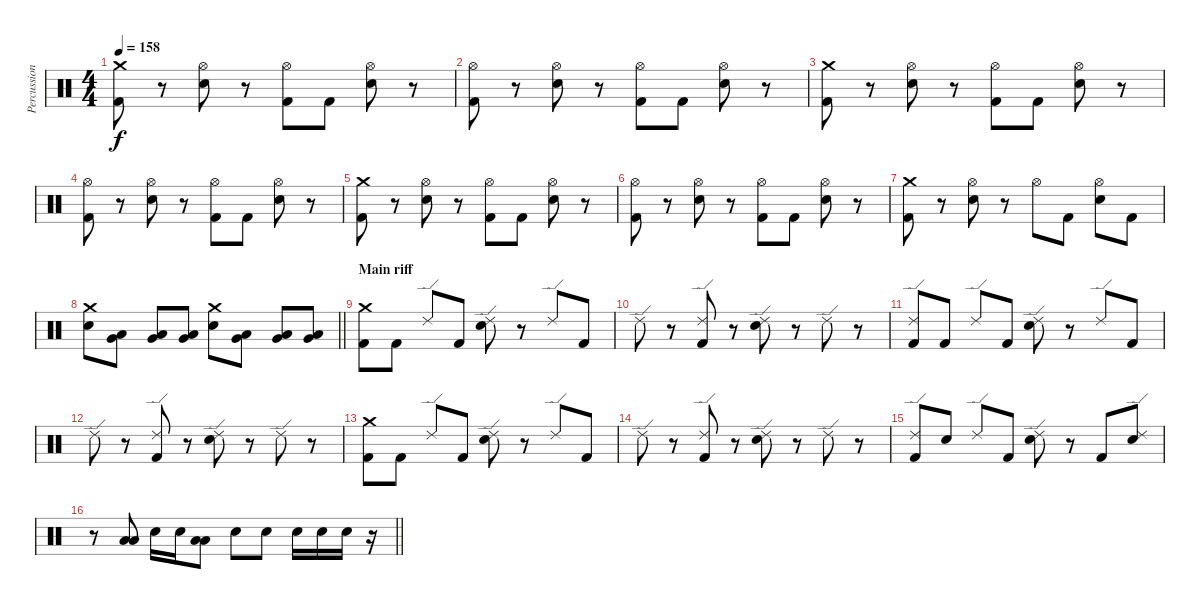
\track ("Percussion" "Percussion") {instrument percussion}
\staff {score}
\articulation defaults
\ts (4 4)
\tempo 158
\clef neutral
\ks c
("Crash medium (hit)" "Kick (hit) 2").8{dy f} r.8 ("Hi-Hat (open)" "Electric Snare (hit)").8 r.8 ("Hi-Hat (open)" "Kick (hit) 2").8 "Kick (hit) 2".8 ("Hi-Hat (open)" "Electric Snare (hit)").8 r.8 |
("Hi-Hat (open)" "Kick (hit) 2").8 r.8 ("Hi-Hat (open)" "Electric Snare (hit)").8 r.8 ("Hi-Hat (open)" "Kick (hit) 2").8 "Kick (hit) 2".8 ("Hi-Hat (open)" "Electric Snare (hit)").8 r.8 |
("Crash medium (hit)" "Kick (hit) 2").8 r.8 ("Hi-Hat (open)" "Electric Snare (hit)").8 r.8 ("Hi-Hat (open)" "Kick (hit) 2").8 "Kick (hit) 2".8 ("Hi-Hat (open)" "Electric Snare (hit)").8 r.8 |
("Hi-Hat (open)" "Kick (hit) 2").8 r.8 ("Hi-Hat (open)" "Electric Snare (hit)").8 r.8 ("Hi-Hat (open)" "Kick (hit) 2").8 "Kick (hit) 2".8 ("Hi-Hat (open)" "Electric Snare (hit)").8 r.8 |
("Crash medium (hit)" "Kick (hit) 2").8 r.8 ("Hi-Hat (open)" "Electric Snare (hit)").8 r.8 ("Hi-Hat (open)" "Kick (hit) 2").8 "Kick (hit) 2".8 ("Hi-Hat (open)" "Electric Snare (hit)").8 r.8 |
("Hi-Hat (open)" "Kick (hit) 2").8 r.8 ("Hi-Hat (open)" "Electric Snare (hit)").8 r.8 ("Hi-Hat (open)" "Kick (hit) 2").8 "Kick (hit) 2".8 ("Hi-Hat (open)" "Electric Snare (hit)").8 r.8 |
("Crash medium (hit)" "Kick (hit) 2").8 r.8 ("Hi-Hat (open)" "Electric Snare (hit)").8 r.8 "Hi-Hat (open)".8 "Kick (hit) 2".8 ("Hi-Hat (open)" "Electric Snare (hit)").8 "Kick (hit) 2".8 |
\barLineRight lightlight
("Crash medium (hit)" "Electric Snare (hit)").8 ("Low Tom (hit)" "Very Low Tom (hit)").8 ("Low Tom (hit)" "Very Low Tom (hit)").8 ("Low Tom (hit)" "Very Low Tom (hit)").8 ("Crash medium (hit)" "Electric Snare (hit)").8 ("Low Floor Tom (hit)" "Very Low Tom (hit)").8 ("Low Floor Tom (hit)" "Very Low Tom (hit)").8 ("Low Floor Tom (hit)" "Very Low Tom (hit)").8 |
\section ("" "Main riff")
("Crash medium (hit)" "Kick (hit) 2").8 "Kick (hit) 2".8 "Ride (edge) 2".8 "Kick (hit) 2".8 ("Ride (edge) 2" "Electric Snare (hit)").8 r.8 "Ride (edge) 2".8 "Kick (hit) 2".8 |
"Ride (edge) 2".8 r.8 ("Ride (edge) 2" "Kick (hit) 2").8 r.8 ("Ride (edge) 2" "Electric Snare (hit)").8 r.8 "Ride (edge) 2".8 r.8 |
("Ride (edge) 2" "Kick (hit) 2").8 "Kick (hit) 2".8 "Ride (edge) 2".8 "Kick (hit) 2".8 ("Ride (edge) 2" "Electric Snare (hit)").8 r.8 "Ride (edge) 2".8 "Kick (hit) 2".8 |
"Ride (edge) 2".8 r.8 ("Ride (edge) 2" "Kick (hit) 2").8 r.8 ("Ride (edge) 2" "Electric Snare (hit)").8 r.8 "Ride (edge) 2".8 r.8 |
("Crash medium (hit)" "Kick (hit) 2").8 "Kick (hit) 2".8 "Ride (edge) 2".8 "Kick (hit) 2".8 ("Ride (edge) 2" "Electric Snare (hit)").8 r.8 "Ride (edge) 2".8 "Kick (hit) 2".8 |
"Ride (edge) 2".8 r.8 ("Ride (edge) 2" "Kick (hit) 2").8 r.8 ("Ride (edge) 2" "Electric Snare (hit)").8 r.8 "Ride (edge) 2".8 r.8 |
("Ride (edge) 2" "Kick (hit) 2").8 "Electric Snare (hit)".8 "Ride (edge) 2".8 "Kick (hit) 2".8 ("Ride (edge) 2" "Electric Snare (hit)").8 r.8 "Kick (hit) 2".8 ("Ride (edge) 2" "Electric Snare (hit)").8 |
\barLineRight lightlight
r.8 ("Low Tom (hit)" "Low Tom (hit)").8 "Electric Snare (hit)".16 "Electric Snare (hit)".16 ("Low Tom (hit)" "Low Tom (hit)").8 "Electric Snare (hit)".8 "Electric Snare (hit)".8 "Electric Snare (hit)".16 "Electric Snare (hit)".16 "Electric Snare (hit)".16 r.16
